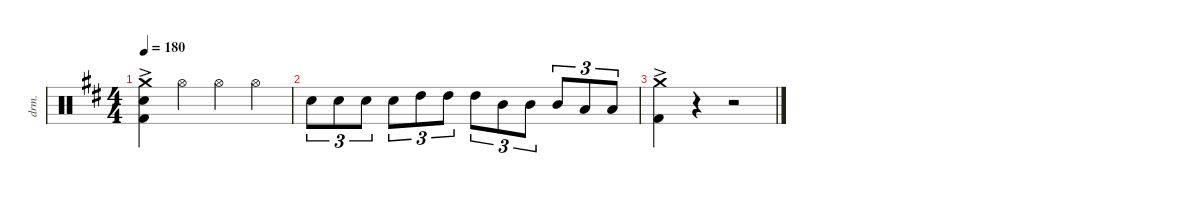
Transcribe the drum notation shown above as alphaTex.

\defaultSystemsLayout 4
\hideDynamics
\bracketExtendMode nobrackets
\otherSystemsTrackNameOrientation horizontal
\track ("Drum" "drm.") {instrument percussion}
\staff {score}
\articulation defaults
\ts (4 4)
\tempo 180
\clef neutral
\ks d
("Snare (hit) 2"{ac acc forcenatural} "Kick (hit) 2"{ac acc forcenatural} "Crash medium (hit)"{ac acc forcenatural}).4{dy f beam Down} "Hi-Hat (open)"{acc forcenatural}.4{beam Down} "Hi-Hat (open)"{acc forcenatural}.4{beam Down} "Hi-Hat (open)"{acc forcenatural}.4{beam Down} |
"Snare (hit) 2"{acc forcenatural}.8{tu (3 2) beam Down} "Snare (hit) 2"{acc forcenatural}.8{tu (3 2) beam Down} "Snare (hit) 2"{acc forcenatural}.8{tu (3 2) beam Down} "Snare (hit) 2"{acc forcenatural}.8{tu (3 2) beam Down} "High Tom (hit)"{acc forcenatural}.8{tu (3 2) beam Down} "High Tom (hit)"{acc forcenatural}.8{tu (3 2) beam Down} "High Tom (hit)"{acc forcenatural}.8{tu (3 2) beam Down} "Mid Tom (hit)"{acc forcenatural}.8{tu (3 2) beam Down} "Mid Tom (hit)"{acc forcenatural}.8{tu (3 2) beam Down} "Mid Tom (hit)"{acc forcenatural}.8{tu (3 2) beam Up} "Low Tom (hit)"{acc forcenatural}.8{tu (3 2) beam Up} "Low Tom (hit)"{acc forcenatural}.8{tu (3 2) beam Up} |
("Kick (hit) 2"{ac acc forcenatural} "Crash medium (hit)"{ac acc forcenatural}).4{beam Down} r.4{beam Down} r.2{beam Down}
